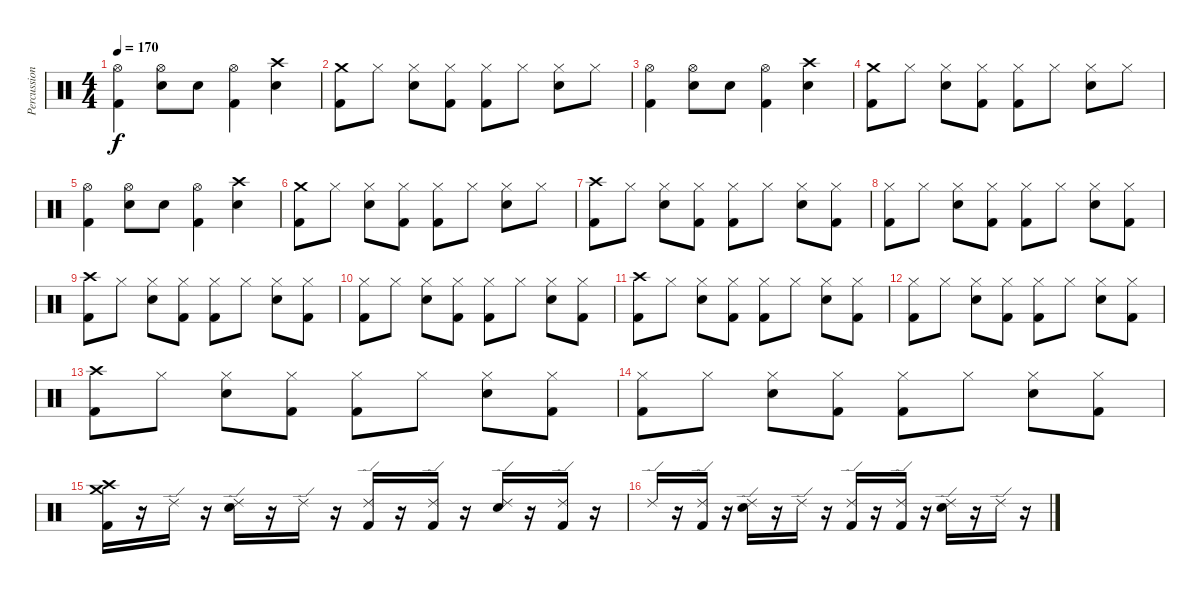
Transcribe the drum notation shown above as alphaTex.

\track ("Percussion" "Percussion") {instrument percussion}
\staff {score}
\articulation defaults
\ts (4 4)
\tempo 170
\clef neutral
\ks c
("Hi-Hat (open)" "Kick (hit) 2").4{dy f} ("Hi-Hat (open)" "Snare (hit) 2").8 "Snare (hit) 2".8 ("Hi-Hat (open)" "Kick (hit) 2").4 ("Crash high (hit)" "Snare (hit) 2").4 |
("Crash medium (hit)" "Kick (hit) 2").8 "Hi-Hat (closed)".8 ("Hi-Hat (closed)" "Snare (hit) 2").8 ("Hi-Hat (closed)" "Kick (hit) 2").8 ("Hi-Hat (closed)" "Kick (hit) 2").8 "Hi-Hat (closed)".8 ("Hi-Hat (closed)" "Snare (hit) 2").8 "Hi-Hat (closed)".8 |
("Hi-Hat (open)" "Kick (hit) 2").4 ("Hi-Hat (open)" "Snare (hit) 2").8 "Snare (hit) 2".8 ("Hi-Hat (open)" "Kick (hit) 2").4 ("Crash high (hit)" "Snare (hit) 2").4 |
("Crash medium (hit)" "Kick (hit) 2").8 "Hi-Hat (closed)".8 ("Hi-Hat (closed)" "Snare (hit) 2").8 ("Hi-Hat (closed)" "Kick (hit) 2").8 ("Hi-Hat (closed)" "Kick (hit) 2").8 "Hi-Hat (closed)".8 ("Hi-Hat (closed)" "Snare (hit) 2").8 "Hi-Hat (closed)".8 |
("Hi-Hat (open)" "Kick (hit) 2").4 ("Hi-Hat (open)" "Snare (hit) 2").8 "Snare (hit) 2".8 ("Hi-Hat (open)" "Kick (hit) 2").4 ("Crash high (hit)" "Snare (hit) 2").4 |
("Crash medium (hit)" "Kick (hit) 2").8 "Hi-Hat (closed)".8 ("Hi-Hat (closed)" "Snare (hit) 2").8 ("Hi-Hat (closed)" "Kick (hit) 2").8 ("Hi-Hat (closed)" "Kick (hit) 2").8 "Hi-Hat (closed)".8 ("Hi-Hat (closed)" "Snare (hit) 2").8 "Hi-Hat (closed)".8 |
("Crash high (hit)" "Kick (hit) 2").8 "Hi-Hat (closed)".8 ("Hi-Hat (closed)" "Snare (hit) 2").8 ("Hi-Hat (closed)" "Kick (hit) 2").8 ("Hi-Hat (closed)" "Kick (hit) 2").8 "Hi-Hat (closed)".8 ("Hi-Hat (closed)" "Snare (hit) 2").8 ("Hi-Hat (closed)" "Kick (hit) 2").8 |
("Hi-Hat (closed)" "Kick (hit) 2").8 "Hi-Hat (closed)".8 ("Hi-Hat (closed)" "Snare (hit) 2").8 ("Hi-Hat (closed)" "Kick (hit) 2").8 ("Hi-Hat (closed)" "Kick (hit) 2").8 "Hi-Hat (closed)".8 ("Hi-Hat (closed)" "Snare (hit) 2").8 ("Hi-Hat (closed)" "Kick (hit) 2").8 |
("Crash high (hit)" "Kick (hit) 2").8 "Hi-Hat (closed)".8 ("Hi-Hat (closed)" "Snare (hit) 2").8 ("Hi-Hat (closed)" "Kick (hit) 2").8 ("Hi-Hat (closed)" "Kick (hit) 2").8 "Hi-Hat (closed)".8 ("Hi-Hat (closed)" "Snare (hit) 2").8 ("Hi-Hat (closed)" "Kick (hit) 2").8 |
("Hi-Hat (closed)" "Kick (hit) 2").8 "Hi-Hat (closed)".8 ("Hi-Hat (closed)" "Snare (hit) 2").8 ("Hi-Hat (closed)" "Kick (hit) 2").8 ("Hi-Hat (closed)" "Kick (hit) 2").8 "Hi-Hat (closed)".8 ("Hi-Hat (closed)" "Snare (hit) 2").8 ("Hi-Hat (closed)" "Kick (hit) 2").8 |
("Crash high (hit)" "Kick (hit) 2").8 "Hi-Hat (closed)".8 ("Hi-Hat (closed)" "Snare (hit) 2").8 ("Hi-Hat (closed)" "Kick (hit) 2").8 ("Hi-Hat (closed)" "Kick (hit) 2").8 "Hi-Hat (closed)".8 ("Hi-Hat (closed)" "Snare (hit) 2").8 ("Hi-Hat (closed)" "Kick (hit) 2").8 |
("Hi-Hat (closed)" "Kick (hit) 2").8 "Hi-Hat (closed)".8 ("Hi-Hat (closed)" "Snare (hit) 2").8 ("Hi-Hat (closed)" "Kick (hit) 2").8 ("Hi-Hat (closed)" "Kick (hit) 2").8 "Hi-Hat (closed)".8 ("Hi-Hat (closed)" "Snare (hit) 2").8 ("Hi-Hat (closed)" "Kick (hit) 2").8 |
("Crash high (hit)" "Kick (hit) 2").8 "Hi-Hat (closed)".8 ("Hi-Hat (closed)" "Snare (hit) 2").8 ("Hi-Hat (closed)" "Kick (hit) 2").8 ("Hi-Hat (closed)" "Kick (hit) 2").8 "Hi-Hat (closed)".8 ("Hi-Hat (closed)" "Snare (hit) 2").8 ("Hi-Hat (closed)" "Kick (hit) 2").8 |
("Hi-Hat (closed)" "Kick (hit) 2").8 "Hi-Hat (closed)".8 ("Hi-Hat (closed)" "Snare (hit) 2").8 ("Hi-Hat (closed)" "Kick (hit) 2").8 ("Hi-Hat (closed)" "Kick (hit) 2").8 "Hi-Hat (closed)".8 ("Hi-Hat (closed)" "Snare (hit) 2").8 ("Hi-Hat (closed)" "Kick (hit) 2").8 |
("Crash medium (hit)" "Crash high (hit)" "Kick (hit) 2").16 r.16 "Ride (edge) 2".16 r.16 ("Ride (edge) 2" "Snare (hit) 2").16 r.16 "Ride (edge) 2".16 r.16 ("Ride (edge) 2" "Kick (hit) 2").16 r.16 ("Ride (edge) 2" "Kick (hit) 2").16 r.16 ("Ride (edge) 2" "Snare (hit) 2").16 r.16 ("Ride (edge) 2" "Kick (hit) 2").16 r.16 |
"Ride (edge) 2".16 r.16 ("Ride (edge) 2" "Kick (hit) 2").16 r.16 ("Ride (edge) 2" "Snare (hit) 2").16 r.16 "Ride (edge) 2".16 r.16 ("Ride (edge) 2" "Kick (hit) 2").16 r.16 ("Ride (edge) 2" "Kick (hit) 2").16 r.16 ("Ride (edge) 2" "Snare (hit) 2").16 r.16 "Ride (edge) 2".16 r.16
